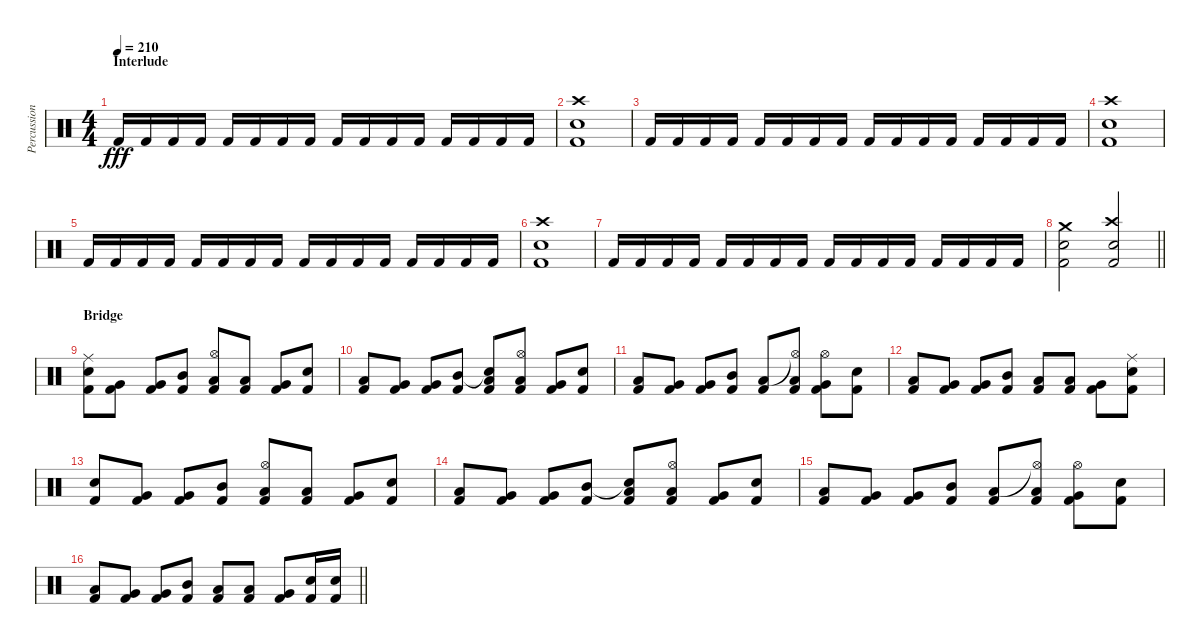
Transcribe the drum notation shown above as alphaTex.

\track ("Percussion" "Percussion") {instrument percussion}
\staff {score}
\articulation defaults
\ts (4 4)
\section ("" "Interlude")
\tempo 210
\clef neutral
\ks c "Kick (hit) 2".16{dy fff volume 12} "Kick (hit) 2".16 "Kick (hit) 2".16 "Kick (hit) 2".16 "Kick (hit) 2".16 "Kick (hit) 2".16 "Kick (hit) 2".16 "Kick (hit) 2".16 "Kick (hit) 2".16 "Kick (hit) 2".16 "Kick (hit) 2".16 "Kick (hit) 2".16 "Kick (hit) 2".16 "Kick (hit) 2".16 "Kick (hit) 2".16 "Kick (hit) 2".16
|
("Crash high (hit)" "Electric Snare (hit)" "Kick (hit) 2").1 |
"Kick (hit) 2".16 "Kick (hit) 2".16 "Kick (hit) 2".16 "Kick (hit) 2".16 "Kick (hit) 2".16 "Kick (hit) 2".16 "Kick (hit) 2".16 "Kick (hit) 2".16 "Kick (hit) 2".16 "Kick (hit) 2".16 "Kick (hit) 2".16 "Kick (hit) 2".16 "Kick (hit) 2".16 "Kick (hit) 2".16 "Kick (hit) 2".16 "Kick (hit) 2".16 |
("Crash high (hit)" "Electric Snare (hit)" "Kick (hit) 2").1 |
"Kick (hit) 2".16 "Kick (hit) 2".16 "Kick (hit) 2".16 "Kick (hit) 2".16 "Kick (hit) 2".16 "Kick (hit) 2".16 "Kick (hit) 2".16 "Kick (hit) 2".16 "Kick (hit) 2".16 "Kick (hit) 2".16 "Kick (hit) 2".16 "Kick (hit) 2".16 "Kick (hit) 2".16 "Kick (hit) 2".16 "Kick (hit) 2".16 "Kick (hit) 2".16 |
("Crash high (hit)" "Electric Snare (hit)" "Kick (hit) 2").1 |
"Kick (hit) 2".16 "Kick (hit) 2".16 "Kick (hit) 2".16 "Kick (hit) 2".16 "Kick (hit) 2".16 "Kick (hit) 2".16 "Kick (hit) 2".16 "Kick (hit) 2".16 "Kick (hit) 2".16 "Kick (hit) 2".16 "Kick (hit) 2".16 "Kick (hit) 2".16 "Kick (hit) 2".16 "Kick (hit) 2".16 "Kick (hit) 2".16 "Kick (hit) 2".16 |
\barLineRight lightlight
("Crash medium (hit)" "Electric Snare (hit)" "Kick (hit) 2").2 ("Crash high (hit)" "Electric Snare (hit)" "Kick (hit) 2").2 |
\section ("" "Bridge")
("Ride (middle)" "Electric Snare (hit)" "Kick (hit) 2").8 ("Very Low Tom (hit)" "Kick (hit) 2").8 ("Very Low Tom (hit)" "Kick (hit) 2").8 ("Mid Tom (hit)" "Kick (hit) 2").8 ("Hi-Hat (open)" "Low Tom (hit)" "Kick (hit) 2").8 ("Low Tom (hit)" "Kick (hit) 2").8 ("Very Low Tom (hit)" "Kick (hit) 2").8 ("Electric Snare (hit)" "Kick (hit) 2").8 |
("Low Floor Tom (hit)" "Kick (hit) 2").8 ("Very Low Tom (hit)" "Kick (hit) 2").8 ("Very Low Tom (hit)" "Kick (hit) 2").8 ("Mid Tom (hit)" "Kick (hit) 2").8 ("Snare (hit)"{t} "Low Tom (hit)" "Kick (hit) 2").8 ("Hi-Hat (open)" "Low Tom (hit)" "Kick (hit) 2").8 ("Very Low Tom (hit)" "Kick (hit) 2").8 ("Electric Snare (hit)" "Kick (hit) 2").8 |
("Low Floor Tom (hit)" "Kick (hit) 2").8 ("Very Low Tom (hit)" "Kick (hit) 2").8 ("Very Low Tom (hit)" "Kick (hit) 2").8 ("Mid Tom (hit)" "Kick (hit) 2").8 ("Low Tom (hit)" "Kick (hit) 2").8 ("Hi-Hat (open)"{t} "Low Tom (hit)" "Kick (hit) 2").8 ("Hi-Hat (open)" "Very Low Tom (hit)" "Kick (hit) 2").8 ("Electric Snare (hit)" "Kick (hit) 2").8 |
("Low Floor Tom (hit)" "Kick (hit) 2").8 ("Very Low Tom (hit)" "Kick (hit) 2").8 ("Very Low Tom (hit)" "Kick (hit) 2").8 ("Mid Tom (hit)" "Kick (hit) 2").8 ("Low Tom (hit)" "Kick (hit) 2").8 ("Low Tom (hit)" "Kick (hit) 2").8 ("Very Low Tom (hit)" "Kick (hit) 2").8 ("Ride (middle)" "Electric Snare (hit)" "Kick (hit) 2").8 |
("Electric Snare (hit)" "Kick (hit) 2").8 ("Very Low Tom (hit)" "Kick (hit) 2").8 ("Very Low Tom (hit)" "Kick (hit) 2").8 ("Mid Tom (hit)" "Kick (hit) 2").8 ("Hi-Hat (open)" "Low Tom (hit)" "Kick (hit) 2").8 ("Low Tom (hit)" "Kick (hit) 2").8 ("Very Low Tom (hit)" "Kick (hit) 2").8 ("Electric Snare (hit)" "Kick (hit) 2").8 |
("Low Floor Tom (hit)" "Kick (hit) 2").8 ("Very Low Tom (hit)" "Kick (hit) 2").8 ("Very Low Tom (hit)" "Kick (hit) 2").8 ("Mid Tom (hit)" "Kick (hit) 2").8 ("Snare (hit)"{t} "Low Tom (hit)" "Kick (hit) 2").8 ("Hi-Hat (open)" "Low Tom (hit)" "Kick (hit) 2").8 ("Very Low Tom (hit)" "Kick (hit) 2").8 ("Electric Snare (hit)" "Kick (hit) 2").8 |
("Low Floor Tom (hit)" "Kick (hit) 2").8 ("Very Low Tom (hit)" "Kick (hit) 2").8 ("Very Low Tom (hit)" "Kick (hit) 2").8 ("Mid Tom (hit)" "Kick (hit) 2").8 ("Low Tom (hit)" "Kick (hit) 2").8 ("Hi-Hat (open)"{t} "Low Tom (hit)" "Kick (hit) 2").8 ("Hi-Hat (open)" "Very Low Tom (hit)" "Kick (hit) 2").8 ("Electric Snare (hit)" "Kick (hit) 2").8 |
\barLineRight lightlight
("Low Floor Tom (hit)" "Kick (hit) 2").8 ("Very Low Tom (hit)" "Kick (hit) 2").8 ("Very Low Tom (hit)" "Kick (hit) 2").8 ("Mid Tom (hit)" "Kick (hit) 2").8 ("Low Tom (hit)" "Kick (hit) 2").8 ("Low Tom (hit)" "Kick (hit) 2").8 ("Very Low Tom (hit)" "Kick (hit) 2").8 ("Electric Snare (hit)" "Kick (hit) 2").16 ("Electric Snare (hit)" "Kick (hit) 2").16
